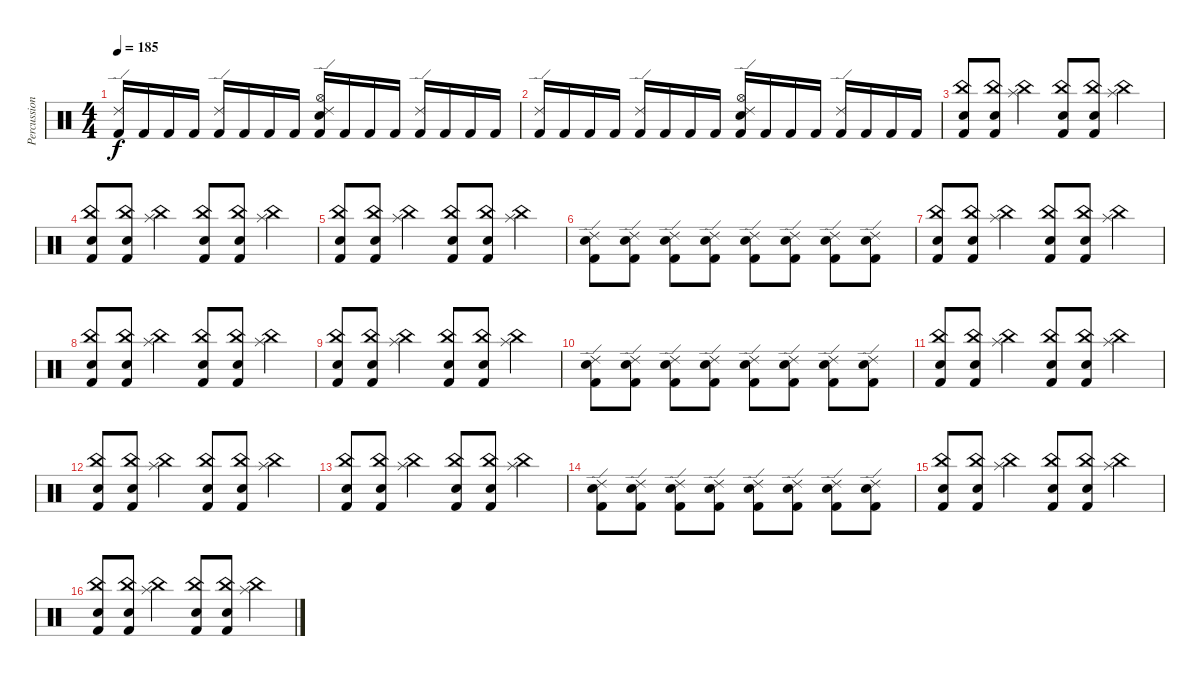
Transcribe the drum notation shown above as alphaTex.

\track ("Percussion" "Percussion") {instrument percussion}
\staff {score}
\articulation defaults
\ts (4 4)
\tempo 185
\clef neutral
\ks c
("Ride (edge) 2" "Kick (hit) 2").16{dy f} "Kick (hit) 2".16 "Kick (hit) 2".16 "Kick (hit) 2".16 ("Ride (edge) 2" "Kick (hit) 2").16 "Kick (hit) 2".16 "Kick (hit) 2".16 "Kick (hit) 2".16 ("Hi-Hat (open)" "Ride (edge) 2" "Snare (hit) 2" "Kick (hit) 2").16 "Kick (hit) 2".16 "Kick (hit) 2".16 "Kick (hit) 2".16 ("Ride (edge) 2" "Kick (hit) 2").16 "Kick (hit) 2".16 "Kick (hit) 2".16 "Kick (hit) 2".16 |
("Ride (edge) 2" "Kick (hit) 2").16 "Kick (hit) 2".16 "Kick (hit) 2".16 "Kick (hit) 2".16 ("Ride (edge) 2" "Kick (hit) 2").16 "Kick (hit) 2".16 "Kick (hit) 2".16 "Kick (hit) 2".16 ("Hi-Hat (open)" "Ride (edge) 2" "Snare (hit) 2" "Kick (hit) 2").16 "Kick (hit) 2".16 "Kick (hit) 2".16 "Kick (hit) 2".16 ("Ride (edge) 2" "Kick (hit) 2").16 "Kick (hit) 2".16 "Kick (hit) 2".16 "Kick (hit) 2".16 |
("China (hit)" "Kick (hit) 2" "Electric Snare (hit)").8 ("China (hit)" "Kick (hit) 2" "Electric Snare (hit)").8 ("China (hit)" "Splash (hit)").4 ("China (hit)" "Kick (hit) 2" "Electric Snare (hit)").8 ("China (hit)" "Kick (hit) 2" "Electric Snare (hit)").8 ("China (hit)" "Splash (hit)").4 |
("China (hit)" "Kick (hit) 2" "Electric Snare (hit)").8 ("China (hit)" "Kick (hit) 2" "Electric Snare (hit)").8 ("China (hit)" "Splash (hit)").4 ("China (hit)" "Kick (hit) 2" "Electric Snare (hit)").8 ("China (hit)" "Kick (hit) 2" "Electric Snare (hit)").8 ("China (hit)" "Splash (hit)").4 |
("China (hit)" "Kick (hit) 2" "Electric Snare (hit)").8 ("China (hit)" "Kick (hit) 2" "Electric Snare (hit)").8 ("China (hit)" "Splash (hit)").4 ("China (hit)" "Kick (hit) 2" "Electric Snare (hit)").8 ("China (hit)" "Kick (hit) 2" "Electric Snare (hit)").8 ("China (hit)" "Splash (hit)").4 |
("Ride (edge) 2" "Electric Snare (hit)" "Kick (hit) 2").8 ("Ride (edge) 2" "Electric Snare (hit)" "Kick (hit) 2").8 ("Ride (edge) 2" "Electric Snare (hit)" "Kick (hit) 2").8 ("Ride (edge) 2" "Snare (hit)" "Kick (hit) 2").8 ("Ride (edge) 2" "Electric Snare (hit)" "Kick (hit) 2").8 ("Ride (edge) 2" "Electric Snare (hit)" "Kick (hit) 2").8 ("Ride (edge) 2" "Electric Snare (hit)" "Kick (hit) 2").8 ("Ride (edge) 2" "Snare (hit)" "Kick (hit) 2").8 |
("China (hit)" "Kick (hit) 2" "Electric Snare (hit)").8 ("China (hit)" "Kick (hit) 2" "Electric Snare (hit)").8 ("China (hit)" "Splash (hit)").4 ("China (hit)" "Kick (hit) 2" "Electric Snare (hit)").8 ("China (hit)" "Kick (hit) 2" "Electric Snare (hit)").8 ("China (hit)" "Splash (hit)").4 |
("China (hit)" "Kick (hit) 2" "Electric Snare (hit)").8 ("China (hit)" "Kick (hit) 2" "Electric Snare (hit)").8 ("China (hit)" "Splash (hit)").4 ("China (hit)" "Kick (hit) 2" "Electric Snare (hit)").8 ("China (hit)" "Kick (hit) 2" "Electric Snare (hit)").8 ("China (hit)" "Splash (hit)").4 |
("China (hit)" "Kick (hit) 2" "Electric Snare (hit)").8 ("China (hit)" "Kick (hit) 2" "Electric Snare (hit)").8 ("China (hit)" "Splash (hit)").4 ("China (hit)" "Kick (hit) 2" "Electric Snare (hit)").8 ("China (hit)" "Kick (hit) 2" "Electric Snare (hit)").8 ("China (hit)" "Splash (hit)").4 |
("Ride (edge) 2" "Electric Snare (hit)" "Kick (hit) 2").8 ("Ride (edge) 2" "Electric Snare (hit)" "Kick (hit) 2").8 ("Ride (edge) 2" "Electric Snare (hit)" "Kick (hit) 2").8 ("Ride (edge) 2" "Snare (hit)" "Kick (hit) 2").8 ("Ride (edge) 2" "Electric Snare (hit)" "Kick (hit) 2").8 ("Ride (edge) 2" "Electric Snare (hit)" "Kick (hit) 2").8 ("Ride (edge) 2" "Electric Snare (hit)" "Kick (hit) 2").8 ("Ride (edge) 2" "Snare (hit)" "Kick (hit) 2").8 |
("China (hit)" "Kick (hit) 2" "Electric Snare (hit)").8 ("China (hit)" "Kick (hit) 2" "Electric Snare (hit)").8 ("China (hit)" "Splash (hit)").4 ("China (hit)" "Kick (hit) 2" "Electric Snare (hit)").8 ("China (hit)" "Kick (hit) 2" "Electric Snare (hit)").8 ("China (hit)" "Splash (hit)").4 |
("China (hit)" "Kick (hit) 2" "Electric Snare (hit)").8 ("China (hit)" "Kick (hit) 2" "Electric Snare (hit)").8 ("China (hit)" "Splash (hit)").4 ("China (hit)" "Kick (hit) 2" "Electric Snare (hit)").8 ("China (hit)" "Kick (hit) 2" "Electric Snare (hit)").8 ("China (hit)" "Splash (hit)").4 |
("China (hit)" "Kick (hit) 2" "Electric Snare (hit)").8 ("China (hit)" "Kick (hit) 2" "Electric Snare (hit)").8 ("China (hit)" "Splash (hit)").4 ("China (hit)" "Kick (hit) 2" "Electric Snare (hit)").8 ("China (hit)" "Kick (hit) 2" "Electric Snare (hit)").8 ("China (hit)" "Splash (hit)").4 |
("Ride (edge) 2" "Electric Snare (hit)" "Kick (hit) 2").8 ("Ride (edge) 2" "Electric Snare (hit)" "Kick (hit) 2").8 ("Ride (edge) 2" "Electric Snare (hit)" "Kick (hit) 2").8 ("Ride (edge) 2" "Snare (hit)" "Kick (hit) 2").8 ("Ride (edge) 2" "Electric Snare (hit)" "Kick (hit) 2").8 ("Ride (edge) 2" "Electric Snare (hit)" "Kick (hit) 2").8 ("Ride (edge) 2" "Electric Snare (hit)" "Kick (hit) 2").8 ("Ride (edge) 2" "Snare (hit)" "Kick (hit) 2").8 |
("China (hit)" "Kick (hit) 2" "Electric Snare (hit)").8 ("China (hit)" "Kick (hit) 2" "Electric Snare (hit)").8 ("China (hit)" "Splash (hit)").4 ("China (hit)" "Kick (hit) 2" "Electric Snare (hit)").8 ("China (hit)" "Kick (hit) 2" "Electric Snare (hit)").8 ("China (hit)" "Splash (hit)").4 |
("China (hit)" "Kick (hit) 2" "Electric Snare (hit)").8 ("China (hit)" "Kick (hit) 2" "Electric Snare (hit)").8 ("China (hit)" "Splash (hit)").4 ("China (hit)" "Kick (hit) 2" "Electric Snare (hit)").8 ("China (hit)" "Kick (hit) 2" "Electric Snare (hit)").8 ("China (hit)" "Splash (hit)").4
